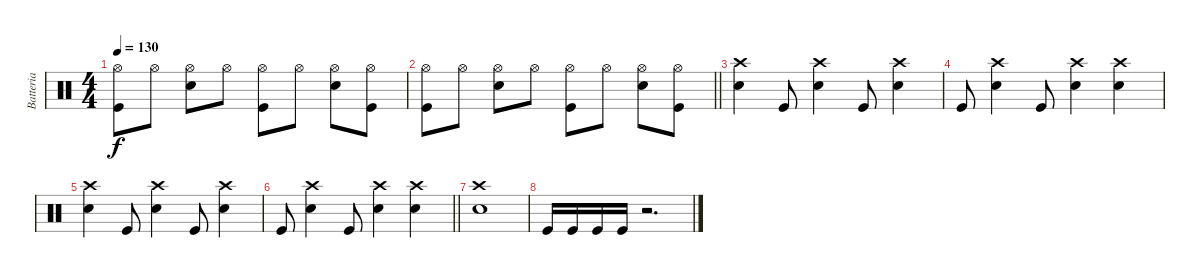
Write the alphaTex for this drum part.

\track ("Batteria" "Batteria") {instrument percussion}
\staff {score}
\articulation defaults
\ts (4 4)
\tempo 130
\clef neutral
\ks c
("Kick (hit)" "Hi-Hat (open)").8{dy f} "Hi-Hat (open)".8 ("Snare (hit) 2" "Hi-Hat (open)").8 "Hi-Hat (open)".8 ("Kick (hit)" "Hi-Hat (open)").8 "Hi-Hat (open)".8 ("Snare (hit) 2" "Hi-Hat (open)").8 ("Kick (hit)" "Hi-Hat (open)").8 |
\barLineRight lightlight
("Kick (hit)" "Hi-Hat (open)").8 "Hi-Hat (open)".8 ("Snare (hit) 2" "Hi-Hat (open)").8 "Hi-Hat (open)".8 ("Kick (hit)" "Hi-Hat (open)").8 "Hi-Hat (open)".8 ("Snare (hit) 2" "Hi-Hat (open)").8 ("Kick (hit)" "Hi-Hat (open)").8 |
("Snare (hit) 2" "Crash high (hit)").4 "Kick (hit)".8 ("Snare (hit) 2" "Crash high (hit)").4 "Kick (hit)".8 ("Snare (hit) 2" "Crash high (hit)").4 |
"Kick (hit)".8 ("Snare (hit) 2" "Crash high (hit)").4 "Kick (hit)".8 ("Snare (hit) 2" "Crash high (hit)").4 ("Snare (hit) 2" "Crash high (hit)").4 |
("Snare (hit) 2" "Crash high (hit)").4 "Kick (hit)".8 ("Snare (hit) 2" "Crash high (hit)").4 "Kick (hit)".8 ("Snare (hit) 2" "Crash high (hit)").4 |
\barLineRight lightlight "Kick (hit)".8
("Snare (hit) 2" "Crash high (hit)").4 "Kick (hit)".8 ("Snare (hit) 2" "Crash high (hit)").4 ("Snare (hit) 2" "Crash high (hit)").4 |
("Crash high (hit)" "Snare (hit) 2").1 |
"Kick (hit)".16 "Kick (hit)".16 "Kick (hit)".16 "Kick (hit)".16 r.2{d}
